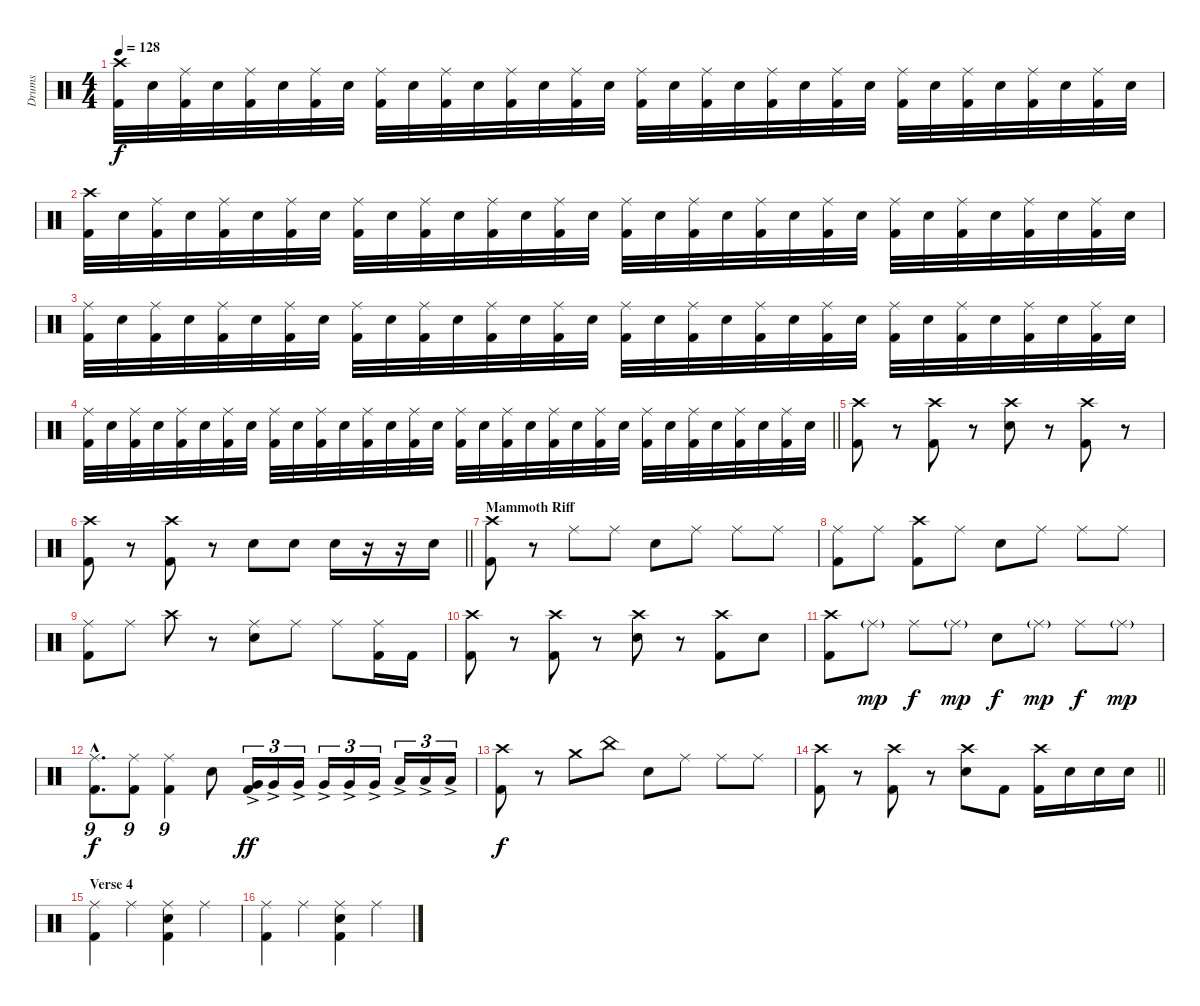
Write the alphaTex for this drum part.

\track ("Drums" "Drums") {instrument percussion}
\staff {score}
\articulation defaults
\ts (4 4)
\tempo 128
\clef neutral
\ks c
("Crash high (hit)" "Kick (hit) 2").32{dy f} "Electric Snare (hit)".32 ("Ride (middle)" "Kick (hit) 2").32 "Electric Snare (hit)".32 ("Ride (middle)" "Kick (hit) 2").32 "Electric Snare (hit)".32 ("Ride (middle)" "Kick (hit) 2").32 "Electric Snare (hit)".32 ("Ride (middle)" "Kick (hit) 2").32 "Electric Snare (hit)".32 ("Ride (middle)" "Kick (hit) 2").32 "Electric Snare (hit)".32 ("Ride (middle)" "Kick (hit) 2").32 "Electric Snare (hit)".32 ("Ride (middle)" "Kick (hit) 2").32 "Electric Snare (hit)".32 ("Ride (middle)" "Kick (hit) 2").32 "Electric Snare (hit)".32 ("Ride (middle)" "Kick (hit) 2").32 "Electric Snare (hit)".32 ("Ride (middle)" "Kick (hit) 2").32 "Electric Snare (hit)".32 ("Ride (middle)" "Kick (hit) 2").32 "Electric Snare (hit)".32 ("Ride (middle)" "Kick (hit) 2").32 "Electric Snare (hit)".32 ("Ride (middle)" "Kick (hit) 2").32 "Electric Snare (hit)".32 ("Ride (middle)" "Kick (hit) 2").32 "Electric Snare (hit)".32 ("Ride (middle)" "Kick (hit) 2").32 "Electric Snare (hit)".32 |
("Crash high (hit)" "Kick (hit) 2").32 "Electric Snare (hit)".32 ("Ride (middle)" "Kick (hit) 2").32 "Electric Snare (hit)".32 ("Ride (middle)" "Kick (hit) 2").32 "Electric Snare (hit)".32 ("Ride (middle)" "Kick (hit) 2").32 "Electric Snare (hit)".32 ("Ride (middle)" "Kick (hit) 2").32 "Electric Snare (hit)".32 ("Ride (middle)" "Kick (hit) 2").32 "Electric Snare (hit)".32 ("Ride (middle)" "Kick (hit) 2").32 "Electric Snare (hit)".32 ("Ride (middle)" "Kick (hit) 2").32 "Electric Snare (hit)".32 ("Ride (middle)" "Kick (hit) 2").32 "Electric Snare (hit)".32 ("Ride (middle)" "Kick (hit) 2").32 "Electric Snare (hit)".32 ("Ride (middle)" "Kick (hit) 2").32 "Electric Snare (hit)".32 ("Ride (middle)" "Kick (hit) 2").32 "Electric Snare (hit)".32 ("Ride (middle)" "Kick (hit) 2").32 "Electric Snare (hit)".32 ("Ride (middle)" "Kick (hit) 2").32 "Electric Snare (hit)".32 ("Ride (middle)" "Kick (hit) 2").32 "Electric Snare (hit)".32 ("Ride (middle)" "Kick (hit) 2").32 "Electric Snare (hit)".32 |
("Ride (middle)" "Kick (hit) 2").32 "Electric Snare (hit)".32 ("Ride (middle)" "Kick (hit) 2").32 "Electric Snare (hit)".32 ("Ride (middle)" "Kick (hit) 2").32 "Electric Snare (hit)".32 ("Ride (middle)" "Kick (hit) 2").32 "Electric Snare (hit)".32 ("Ride (middle)" "Kick (hit) 2").32 "Electric Snare (hit)".32 ("Ride (middle)" "Kick (hit) 2").32 "Electric Snare (hit)".32 ("Ride (middle)" "Kick (hit) 2").32 "Electric Snare (hit)".32 ("Ride (middle)" "Kick (hit) 2").32 "Electric Snare (hit)".32 ("Ride (middle)" "Kick (hit) 2").32 "Electric Snare (hit)".32 ("Ride (middle)" "Kick (hit) 2").32 "Electric Snare (hit)".32 ("Ride (middle)" "Kick (hit) 2").32 "Electric Snare (hit)".32 ("Ride (middle)" "Kick (hit) 2").32 "Electric Snare (hit)".32 ("Ride (middle)" "Kick (hit) 2").32 "Electric Snare (hit)".32 ("Ride (middle)" "Kick (hit) 2").32 "Electric Snare (hit)".32 ("Ride (middle)" "Kick (hit) 2").32 "Electric Snare (hit)".32 ("Ride (middle)" "Kick (hit) 2").32 "Electric Snare (hit)".32 |
\barLineRight lightlight
("Ride (middle)" "Kick (hit) 2").32 "Electric Snare (hit)".32 ("Ride (middle)" "Kick (hit) 2").32 "Electric Snare (hit)".32 ("Ride (middle)" "Kick (hit) 2").32 "Electric Snare (hit)".32 ("Ride (middle)" "Kick (hit) 2").32 "Electric Snare (hit)".32 ("Ride (middle)" "Kick (hit) 2").32 "Electric Snare (hit)".32 ("Ride (middle)" "Kick (hit) 2").32 "Electric Snare (hit)".32 ("Ride (middle)" "Kick (hit) 2").32 "Electric Snare (hit)".32 ("Ride (middle)" "Kick (hit) 2").32 "Electric Snare (hit)".32 ("Ride (middle)" "Kick (hit) 2").32 "Electric Snare (hit)".32 ("Ride (middle)" "Kick (hit) 2").32 "Electric Snare (hit)".32 ("Ride (middle)" "Kick (hit) 2").32 "Electric Snare (hit)".32 ("Ride (middle)" "Kick (hit) 2").32 "Electric Snare (hit)".32 ("Ride (middle)" "Kick (hit) 2").32 "Electric Snare (hit)".32 ("Ride (middle)" "Kick (hit) 2").32 "Electric Snare (hit)".32 ("Ride (middle)" "Kick (hit) 2").32 "Electric Snare (hit)".32 ("Ride (middle)" "Kick (hit) 2").32 "Electric Snare (hit)".32 |
("Crash high (hit)" "Kick (hit) 2").8 r.8 ("Crash high (hit)" "Kick (hit) 2").8 r.8 ("Crash high (hit)" "Electric Snare (hit)").8 r.8 ("Crash high (hit)" "Kick (hit) 2").8 r.8 |
\barLineRight lightlight
("Crash high (hit)" "Kick (hit) 2").8 r.8 ("Crash high (hit)" "Kick (hit) 2").8 r.8 "Electric Snare (hit)".8 "Electric Snare (hit)".8 "Electric Snare (hit)".16 r.16 r.16 "Electric Snare (hit)".16 |
\section ("" "Mammoth Riff")
("Crash high (hit)" "Kick (hit) 2").8 r.8 "Ride (middle)".8 "Ride (middle)".8 "Electric Snare (hit)".8 "Ride (middle)".8 "Ride (middle)".8 "Ride (middle)".8 |
("Ride (middle)" "Kick (hit) 2").8 "Ride (middle)".8 ("Crash high (hit)" "Kick (hit) 2").8 "Ride (middle)".8 "Electric Snare (hit)".8 "Ride (middle)".8 "Ride (middle)".8 "Ride (middle)".8 |
("Ride (middle)" "Kick (hit) 2").8 "Ride (middle)".8 "Crash high (hit)".8 r.8 ("Ride (middle)" "Electric Snare (hit)").8 "Ride (middle)".8 "Ride (middle)".8 ("Ride (middle)" "Kick (hit) 2").16 "Kick (hit) 2".16 |
("Crash high (hit)" "Kick (hit) 2").8 r.8 ("Crash high (hit)" "Kick (hit) 2").8 r.8 ("Crash high (hit)" "Electric Snare (hit)").8 r.8 ("Crash high (hit)" "Kick (hit) 2").8 "Electric Snare (hit)".8 |
("Crash high (hit)" "Kick (hit) 2").8 "Ride (middle)"{g}.8{dy mp} "Ride (middle)".8{dy f} "Ride (middle)"{g}.8{dy mp} "Electric Snare (hit)".8{dy f} "Ride (middle)"{g}.8{dy mp} "Ride (middle)".8{dy f} "Ride (middle)"{g}.8{dy mp} |
("Ride (middle)"{hac} "Kick (hit) 2"{hac}).8{d tu (9 8) dy f} ("Ride (middle)" "Kick (hit) 2").8{tu (9 8)} ("Ride (middle)" "Kick (hit) 2").4{tu (9 8)} "Electric Snare (hit)".8 ("Very Low Tom (hit)"{ac} "Kick (hit) 2").16{tu (3 2) dy ff} "Very Low Tom (hit)"{ac}.16{tu (3 2)} "Very Low Tom (hit)"{ac}.16{tu (3 2)} "Very Low Tom (hit)"{ac}.16{tu (3 2)} "Very Low Tom (hit)"{ac}.16{tu (3 2)} "Very Low Tom (hit)"{ac}.16{tu (3 2)} "Low Floor Tom (hit)"{ac}.16{tu (3 2)} "Low Floor Tom (hit)"{ac}.16{tu (3 2)} "Low Floor Tom (hit)"{ac}.16{tu (3 2)} |
("Crash high (hit)" "Kick (hit) 2").8{dy f} r.8 "Crash medium (hit)".8 "China (hit)".8 "Electric Snare (hit)".8 "Ride (middle)".8 "Ride (middle)".8 "Ride (middle)".8 |
\barLineRight lightlight
("Crash high (hit)" "Kick (hit) 2").8 r.8 ("Crash high (hit)" "Kick (hit) 2").8 r.8 ("Crash high (hit)" "Electric Snare (hit)").8 "Kick (hit) 2".8 ("Crash high (hit)" "Kick (hit) 2").16 "Electric Snare (hit)".16 "Electric Snare (hit)".16 "Electric Snare (hit)".16 |
\section ("" "Verse 4")
("Ride (middle)" "Kick (hit) 2").4 "Ride (middle)".4 ("Ride (middle)" "Electric Snare (hit)" "Kick (hit) 2").4 "Ride (middle)".4 |
("Ride (middle)" "Kick (hit) 2").4 "Ride (middle)".4 ("Ride (middle)" "Electric Snare (hit)" "Kick (hit) 2").4 "Ride (middle)".4
